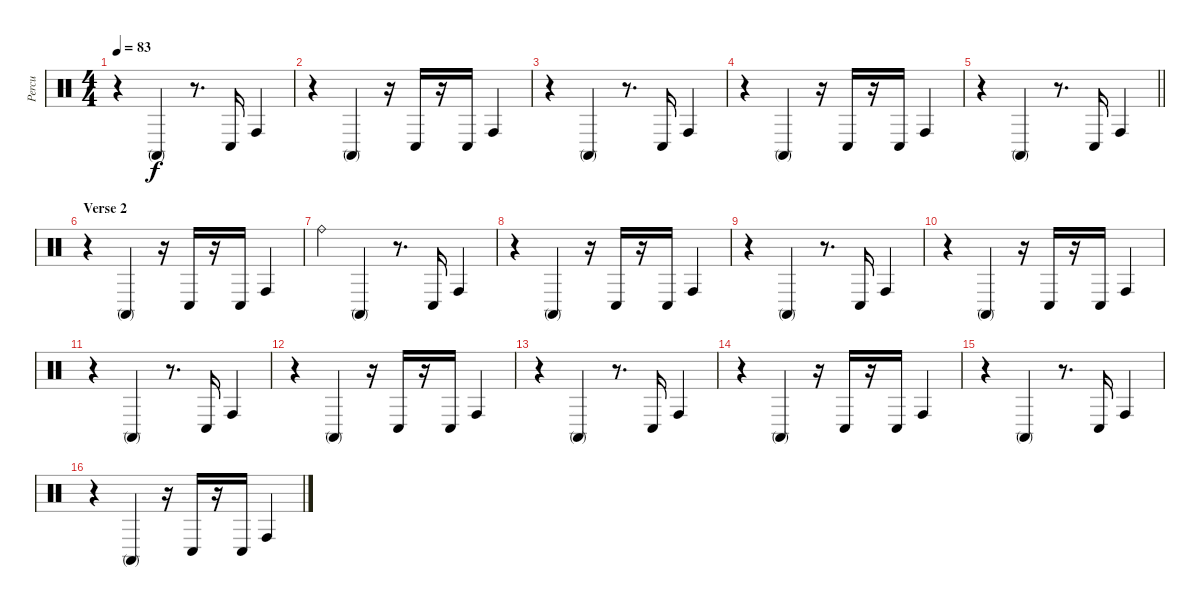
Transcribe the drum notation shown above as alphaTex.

\track ("Percu" "Percu") {instrument percussion}
\staff {score}
\articulation defaults
\ts (4 4)
\tempo 83
\clef neutral
\ks c
r.4{dy f} "Conga high (mute)".4 r.8{d} "Conga low (hit)".16 "Conga high (hit)".4 |
r.4 "Conga high (mute)".4 r.16 "Conga low (hit)".16 r.16 "Conga low (hit)".16 "Conga high (hit)".4 |
r.4 "Conga high (mute)".4 r.8{d} "Conga low (hit)".16 "Conga high (hit)".4 |
r.4 "Conga high (mute)".4 r.16 "Conga low (hit)".16 r.16 "Conga low (hit)".16 "Conga high (hit)".4 |
\barLineRight lightlight
r.4 "Conga high (mute)".4 r.8{d} "Conga low (hit)".16 "Conga high (hit)".4 |
\section ("" "Verse 2")
r.4 "Conga high (mute)".4 r.16 "Conga low (hit)".16 r.16 "Conga low (hit)".16 "Conga high (hit)".4 |
"Ride (bell)".4 "Conga high (mute)".4 r.8{d} "Conga low (hit)".16 "Conga high (hit)".4 |
r.4 "Conga high (mute)".4 r.16 "Conga low (hit)".16 r.16 "Conga low (hit)".16 "Conga high (hit)".4 |
r.4 "Conga high (mute)".4 r.8{d} "Conga low (hit)".16 "Conga high (hit)".4 |
r.4 "Conga high (mute)".4 r.16 "Conga low (hit)".16 r.16 "Conga low (hit)".16 "Conga high (hit)".4 |
r.4 "Conga high (mute)".4 r.8{d} "Conga low (hit)".16 "Conga high (hit)".4 |
r.4 "Conga high (mute)".4 r.16 "Conga low (hit)".16 r.16 "Conga low (hit)".16 "Conga high (hit)".4 |
r.4 "Conga high (mute)".4 r.8{d} "Conga low (hit)".16 "Conga high (hit)".4 |
r.4 "Conga high (mute)".4 r.16 "Conga low (hit)".16 r.16 "Conga low (hit)".16 "Conga high (hit)".4 |
r.4 "Conga high (mute)".4 r.8{d} "Conga low (hit)".16 "Conga high (hit)".4 |
r.4 "Conga high (mute)".4 r.16 "Conga low (hit)".16 r.16 "Conga low (hit)".16 "Conga high (hit)".4
